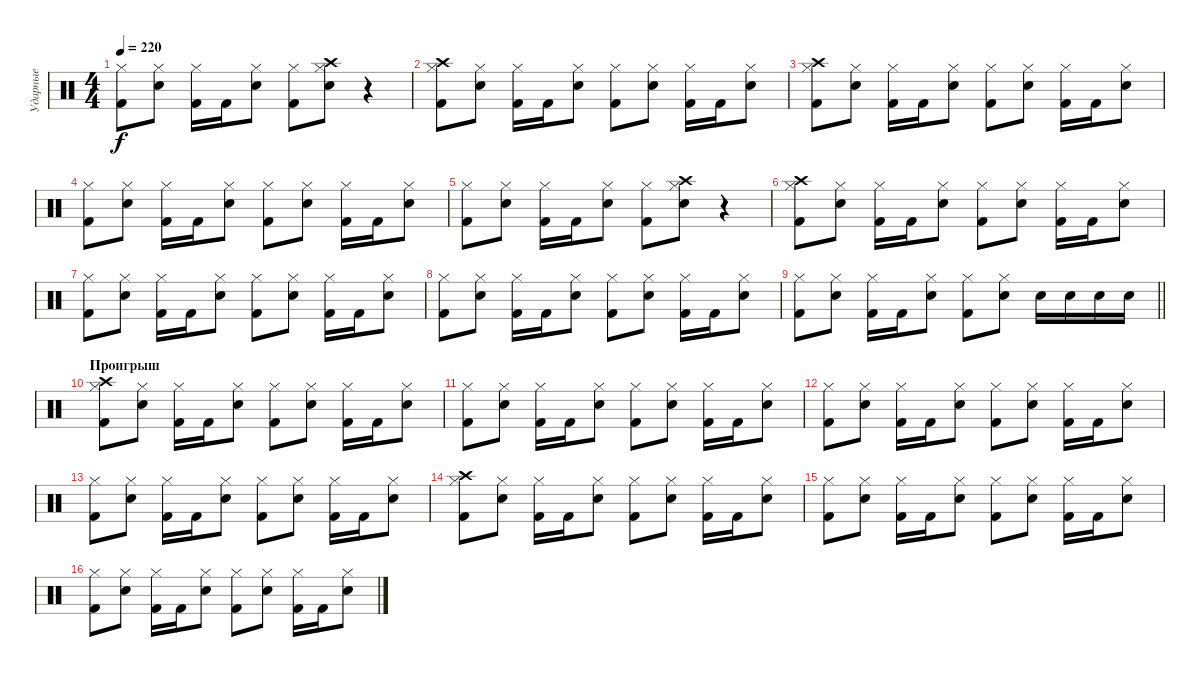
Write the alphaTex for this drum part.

\track ("Ударные" "Ударные") {instrument percussion}
\staff {score}
\articulation defaults
\ts (4 4)
\tempo 220
\clef neutral
\ks c
("Kick (hit) 2" "Hi-Hat (closed)").8{dy f} ("Snare (hit) 2" "Hi-Hat (closed)").8 ("Kick (hit) 2" "Hi-Hat (closed)").16 "Kick (hit) 2".16 ("Snare (hit) 2" "Hi-Hat (closed)").8 ("Kick (hit) 2" "Hi-Hat (closed)").8 ("Snare (hit) 2" "Hi-Hat (closed)" "Crash high (hit)").8 r.4 |
("Kick (hit) 2" "Hi-Hat (closed)" "Crash high (hit)").8 ("Snare (hit) 2" "Hi-Hat (closed)").8 ("Kick (hit) 2" "Hi-Hat (closed)").16 "Kick (hit) 2".16 ("Snare (hit) 2" "Hi-Hat (closed)").8 ("Kick (hit) 2" "Hi-Hat (closed)").8 ("Snare (hit) 2" "Hi-Hat (closed)").8 ("Kick (hit) 2" "Hi-Hat (closed)").16 "Kick (hit) 2".16 ("Snare (hit) 2" "Hi-Hat (closed)").8 |
("Kick (hit) 2" "Hi-Hat (closed)" "Crash high (hit)").8 ("Snare (hit) 2" "Hi-Hat (closed)").8 ("Kick (hit) 2" "Hi-Hat (closed)").16 "Kick (hit) 2".16 ("Snare (hit) 2" "Hi-Hat (closed)").8 ("Kick (hit) 2" "Hi-Hat (closed)").8 ("Snare (hit) 2" "Hi-Hat (closed)").8 ("Kick (hit) 2" "Hi-Hat (closed)").16 "Kick (hit) 2".16 ("Snare (hit) 2" "Hi-Hat (closed)").8 |
("Kick (hit) 2" "Hi-Hat (closed)").8 ("Snare (hit) 2" "Hi-Hat (closed)").8 ("Kick (hit) 2" "Hi-Hat (closed)").16 "Kick (hit) 2".16 ("Snare (hit) 2" "Hi-Hat (closed)").8 ("Kick (hit) 2" "Hi-Hat (closed)").8 ("Snare (hit) 2" "Hi-Hat (closed)").8 ("Kick (hit) 2" "Hi-Hat (closed)").16 "Kick (hit) 2".16 ("Snare (hit) 2" "Hi-Hat (closed)").8 |
("Kick (hit) 2" "Hi-Hat (closed)").8 ("Snare (hit) 2" "Hi-Hat (closed)").8 ("Kick (hit) 2" "Hi-Hat (closed)").16 "Kick (hit) 2".16 ("Snare (hit) 2" "Hi-Hat (closed)").8 ("Kick (hit) 2" "Hi-Hat (closed)").8 ("Snare (hit) 2" "Hi-Hat (closed)" "Crash high (hit)").8 r.4 |
("Kick (hit) 2" "Hi-Hat (closed)" "Crash high (hit)").8 ("Snare (hit) 2" "Hi-Hat (closed)").8 ("Kick (hit) 2" "Hi-Hat (closed)").16 "Kick (hit) 2".16 ("Snare (hit) 2" "Hi-Hat (closed)").8 ("Kick (hit) 2" "Hi-Hat (closed)").8 ("Snare (hit) 2" "Hi-Hat (closed)").8 ("Kick (hit) 2" "Hi-Hat (closed)").16 "Kick (hit) 2".16 ("Snare (hit) 2" "Hi-Hat (closed)").8 |
("Kick (hit) 2" "Hi-Hat (closed)").8 ("Snare (hit) 2" "Hi-Hat (closed)").8 ("Kick (hit) 2" "Hi-Hat (closed)").16 "Kick (hit) 2".16 ("Snare (hit) 2" "Hi-Hat (closed)").8 ("Kick (hit) 2" "Hi-Hat (closed)").8 ("Snare (hit) 2" "Hi-Hat (closed)").8 ("Kick (hit) 2" "Hi-Hat (closed)").16 "Kick (hit) 2".16 ("Snare (hit) 2" "Hi-Hat (closed)").8 |
("Kick (hit) 2" "Hi-Hat (closed)").8 ("Snare (hit) 2" "Hi-Hat (closed)").8 ("Kick (hit) 2" "Hi-Hat (closed)").16 "Kick (hit) 2".16 ("Snare (hit) 2" "Hi-Hat (closed)").8 ("Kick (hit) 2" "Hi-Hat (closed)").8 ("Snare (hit) 2" "Hi-Hat (closed)").8 ("Kick (hit) 2" "Hi-Hat (closed)").16 "Kick (hit) 2".16 ("Snare (hit) 2" "Hi-Hat (closed)").8 |
\barLineRight lightlight
("Kick (hit) 2" "Hi-Hat (closed)").8 ("Snare (hit) 2" "Hi-Hat (closed)").8 ("Kick (hit) 2" "Hi-Hat (closed)").16 "Kick (hit) 2".16 ("Snare (hit) 2" "Hi-Hat (closed)").8 ("Kick (hit) 2" "Hi-Hat (closed)").8 ("Snare (hit) 2" "Hi-Hat (closed)").8 "Snare (hit) 2".16 "Snare (hit) 2".16 "Snare (hit) 2".16 "Snare (hit) 2".16 |
\section ("" "Проигрыш")
("Kick (hit) 2" "Hi-Hat (closed)" "Crash high (hit)").8 ("Snare (hit) 2" "Hi-Hat (closed)").8 ("Kick (hit) 2" "Hi-Hat (closed)").16 "Kick (hit) 2".16 ("Snare (hit) 2" "Hi-Hat (closed)").8 ("Kick (hit) 2" "Hi-Hat (closed)").8 ("Snare (hit) 2" "Hi-Hat (closed)").8 ("Kick (hit) 2" "Hi-Hat (closed)").16 "Kick (hit) 2".16 ("Snare (hit) 2" "Hi-Hat (closed)").8 |
("Kick (hit) 2" "Hi-Hat (closed)").8 ("Snare (hit) 2" "Hi-Hat (closed)").8 ("Kick (hit) 2" "Hi-Hat (closed)").16 "Kick (hit) 2".16 ("Snare (hit) 2" "Hi-Hat (closed)").8 ("Kick (hit) 2" "Hi-Hat (closed)").8 ("Snare (hit) 2" "Hi-Hat (closed)").8 ("Kick (hit) 2" "Hi-Hat (closed)").16 "Kick (hit) 2".16 ("Snare (hit) 2" "Hi-Hat (closed)").8 |
("Kick (hit) 2" "Hi-Hat (closed)").8 ("Snare (hit) 2" "Hi-Hat (closed)").8 ("Kick (hit) 2" "Hi-Hat (closed)").16 "Kick (hit) 2".16 ("Snare (hit) 2" "Hi-Hat (closed)").8 ("Kick (hit) 2" "Hi-Hat (closed)").8 ("Snare (hit) 2" "Hi-Hat (closed)").8 ("Kick (hit) 2" "Hi-Hat (closed)").16 "Kick (hit) 2".16 ("Snare (hit) 2" "Hi-Hat (closed)").8 |
("Kick (hit) 2" "Hi-Hat (closed)").8 ("Snare (hit) 2" "Hi-Hat (closed)").8 ("Kick (hit) 2" "Hi-Hat (closed)").16 "Kick (hit) 2".16 ("Snare (hit) 2" "Hi-Hat (closed)").8 ("Kick (hit) 2" "Hi-Hat (closed)").8 ("Snare (hit) 2" "Hi-Hat (closed)").8 ("Kick (hit) 2" "Hi-Hat (closed)").16 "Kick (hit) 2".16 ("Snare (hit) 2" "Hi-Hat (closed)").8 |
("Kick (hit) 2" "Hi-Hat (closed)" "Crash high (hit)").8 ("Snare (hit) 2" "Hi-Hat (closed)").8 ("Kick (hit) 2" "Hi-Hat (closed)").16 "Kick (hit) 2".16 ("Snare (hit) 2" "Hi-Hat (closed)").8 ("Kick (hit) 2" "Hi-Hat (closed)").8 ("Snare (hit) 2" "Hi-Hat (closed)").8 ("Kick (hit) 2" "Hi-Hat (closed)").16 "Kick (hit) 2".16 ("Snare (hit) 2" "Hi-Hat (closed)").8 |
("Kick (hit) 2" "Hi-Hat (closed)").8 ("Snare (hit) 2" "Hi-Hat (closed)").8 ("Kick (hit) 2" "Hi-Hat (closed)").16 "Kick (hit) 2".16 ("Snare (hit) 2" "Hi-Hat (closed)").8 ("Kick (hit) 2" "Hi-Hat (closed)").8 ("Snare (hit) 2" "Hi-Hat (closed)").8 ("Kick (hit) 2" "Hi-Hat (closed)").16 "Kick (hit) 2".16 ("Snare (hit) 2" "Hi-Hat (closed)").8 |
("Kick (hit) 2" "Hi-Hat (closed)").8 ("Snare (hit) 2" "Hi-Hat (closed)").8 ("Kick (hit) 2" "Hi-Hat (closed)").16 "Kick (hit) 2".16 ("Snare (hit) 2" "Hi-Hat (closed)").8 ("Kick (hit) 2" "Hi-Hat (closed)").8 ("Snare (hit) 2" "Hi-Hat (closed)").8 ("Kick (hit) 2" "Hi-Hat (closed)").16 "Kick (hit) 2".16 ("Snare (hit) 2" "Hi-Hat (closed)").8
